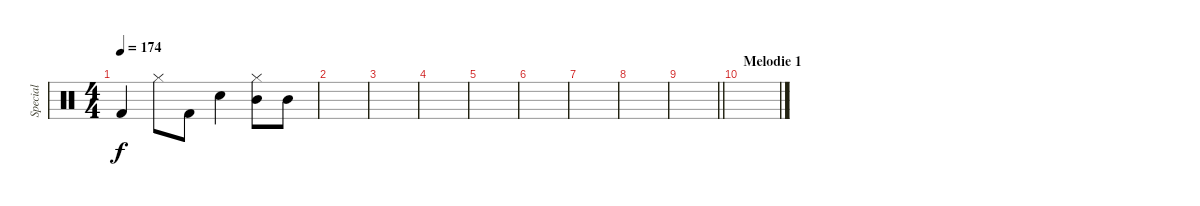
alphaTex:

\track ("Special" "Special") {instrument percussion}
\staff {score}
\articulation defaults
\ts (4 4)
\tempo 174
\clef neutral
\ks c "Kick (hit) 2".4{dy f} "Hi-Hat (closed)".8 "Kick (hit) 2".8 "Snare (hit) 2".4
("Hi-Hat (closed)" "Mid Tom (hit)").8 "Mid Tom (hit)".8 |
|
|
|
|
|
|
|
\barLineRight lightlight
|
\section ("" "Melodie 1")
